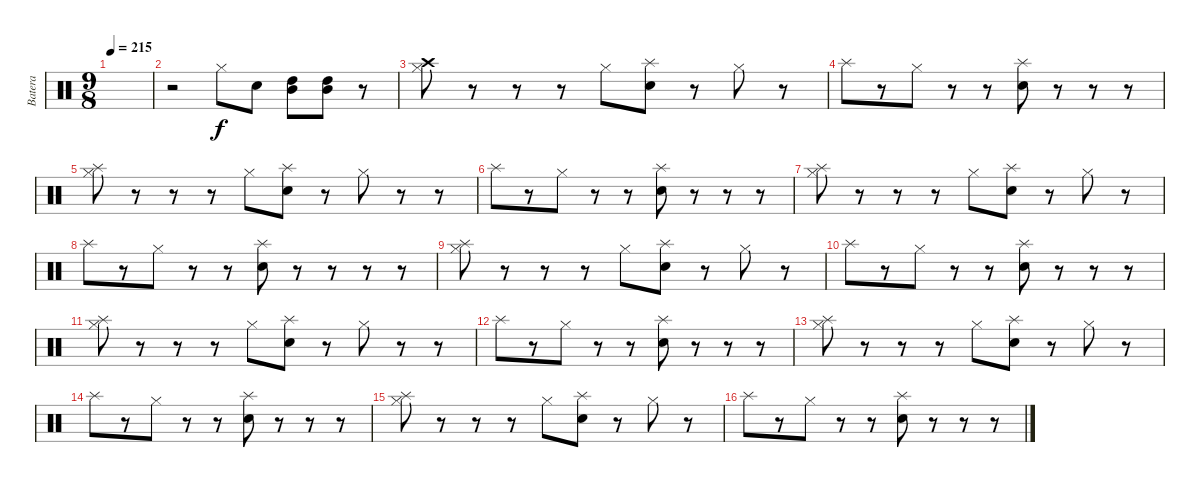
\track ("Batera" "Batera") {instrument percussion}
\staff {score}
\articulation defaults
\ts (9 8)
\tempo 215
\clef neutral
\ks c
|
r.2 "Hi-Hat (closed)".8 "Electric Snare (hit)".8 ("Mid Tom (hit)" "High Tom (hit)").8 ("High Tom (hit)" "Mid Tom (hit)").8 r.8 |
("Crash high (hit)" "Hi-Hat (closed)").8 r.8 r.8 r.8 "Hi-Hat (closed)".8 ("Splash (hit)" "Electric Snare (hit)").8 r.8 "Hi-Hat (closed)".8 r.8 |
"Splash (hit)".8 r.8 "Hi-Hat (closed)".8 r.8 r.8 ("Splash (hit)" "Electric Snare (hit)").8 r.8 r.8 r.8 |
("Splash (hit)" "Hi-Hat (closed)").8 r.8 r.8 r.8 "Hi-Hat (closed)".8 ("Splash (hit)" "Electric Snare (hit)").8 r.8 "Hi-Hat (closed)".8 r.8 r.8 |
"Splash (hit)".8 r.8 "Hi-Hat (closed)".8 r.8 r.8 ("Splash (hit)" "Electric Snare (hit)").8 r.8 r.8 r.8 |
("Splash (hit)" "Hi-Hat (closed)").8 r.8 r.8 r.8 "Hi-Hat (closed)".8 ("Splash (hit)" "Electric Snare (hit)").8 r.8 "Hi-Hat (closed)".8 r.8 |
"Splash (hit)".8 r.8 "Hi-Hat (closed)".8 r.8 r.8 ("Splash (hit)" "Electric Snare (hit)").8 r.8 r.8 r.8 r.8 |
("Splash (hit)" "Hi-Hat (closed)").8 r.8 r.8 r.8 "Hi-Hat (closed)".8 ("Splash (hit)" "Electric Snare (hit)").8 r.8 "Hi-Hat (closed)".8 r.8 |
"Splash (hit)".8 r.8 "Hi-Hat (closed)".8 r.8 r.8 ("Splash (hit)" "Electric Snare (hit)").8 r.8 r.8 r.8 |
("Splash (hit)" "Hi-Hat (closed)").8 r.8 r.8 r.8 "Hi-Hat (closed)".8 ("Splash (hit)" "Electric Snare (hit)").8 r.8 "Hi-Hat (closed)".8 r.8 r.8 |
"Splash (hit)".8 r.8 "Hi-Hat (closed)".8 r.8 r.8 ("Splash (hit)" "Electric Snare (hit)").8 r.8 r.8 r.8 |
("Splash (hit)" "Hi-Hat (closed)").8 r.8 r.8 r.8 "Hi-Hat (closed)".8 ("Splash (hit)" "Electric Snare (hit)").8 r.8 "Hi-Hat (closed)".8 r.8 |
"Splash (hit)".8 r.8 "Hi-Hat (closed)".8 r.8 r.8 ("Splash (hit)" "Electric Snare (hit)").8 r.8 r.8 r.8 |
("Splash (hit)" "Hi-Hat (closed)").8 r.8 r.8 r.8 "Hi-Hat (closed)".8 ("Splash (hit)" "Electric Snare (hit)").8 r.8 "Hi-Hat (closed)".8 r.8 |
"Splash (hit)".8 r.8 "Hi-Hat (closed)".8 r.8 r.8 ("Splash (hit)" "Electric Snare (hit)").8 r.8 r.8 r.8
